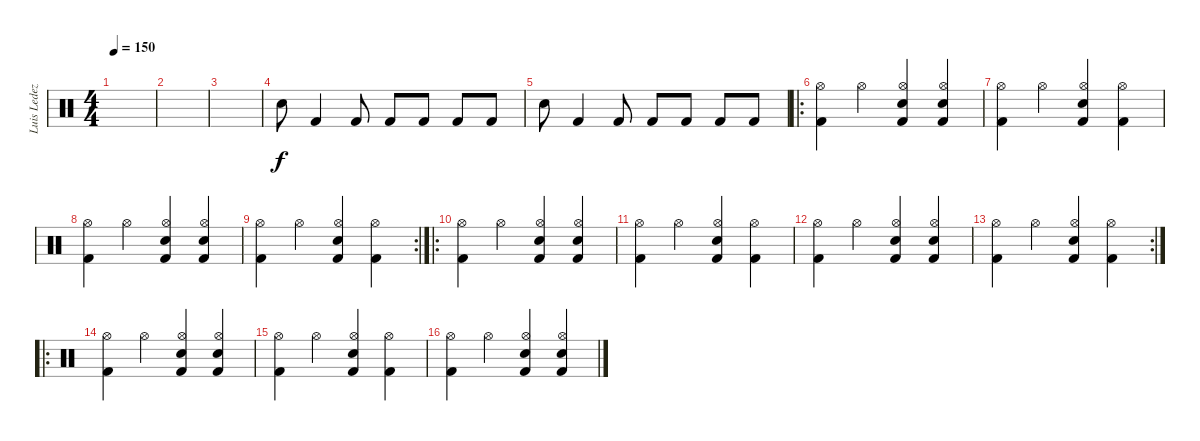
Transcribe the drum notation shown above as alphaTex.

\track ("Luis Ledezma" "Luis Ledez") {instrument percussion}
\staff {score}
\articulation defaults
\ts (4 4)
\tempo 150
\clef neutral
\ks c
|
|
|
"Snare (hit) 2".8 "Kick (hit) 2".4 "Kick (hit) 2".8 "Kick (hit) 2".8 "Kick (hit) 2".8 "Kick (hit) 2".8 "Kick (hit) 2".8 |
"Snare (hit) 2".8 "Kick (hit) 2".4 "Kick (hit) 2".8 "Kick (hit) 2".8 "Kick (hit) 2".8 "Kick (hit) 2".8 "Kick (hit) 2".8 |
\ro
("Hi-Hat (open)" "Kick (hit) 2").4 "Hi-Hat (open)".4 ("Hi-Hat (open)" "Electric Snare (hit)" "Kick (hit) 2").4 ("Hi-Hat (open)" "Electric Snare (hit)" "Kick (hit) 2").4 |
("Hi-Hat (open)" "Kick (hit) 2").4 "Hi-Hat (open)".4 ("Hi-Hat (open)" "Electric Snare (hit)" "Kick (hit) 2").4 ("Hi-Hat (open)" "Kick (hit) 2").4 |
("Hi-Hat (open)" "Kick (hit) 2").4 "Hi-Hat (open)".4 ("Hi-Hat (open)" "Electric Snare (hit)" "Kick (hit) 2").4 ("Hi-Hat (open)" "Electric Snare (hit)" "Kick (hit) 2").4 |
\rc 2
("Hi-Hat (open)" "Kick (hit) 2").4 "Hi-Hat (open)".4 ("Hi-Hat (open)" "Electric Snare (hit)" "Kick (hit) 2").4 ("Hi-Hat (open)" "Kick (hit) 2").4 |
\ro
("Hi-Hat (open)" "Kick (hit) 2").4 "Hi-Hat (open)".4 ("Hi-Hat (open)" "Electric Snare (hit)" "Kick (hit) 2").4 ("Hi-Hat (open)" "Electric Snare (hit)" "Kick (hit) 2").4 |
("Hi-Hat (open)" "Kick (hit) 2").4 "Hi-Hat (open)".4 ("Hi-Hat (open)" "Electric Snare (hit)" "Kick (hit) 2").4 ("Hi-Hat (open)" "Kick (hit) 2").4 |
("Hi-Hat (open)" "Kick (hit) 2").4 "Hi-Hat (open)".4 ("Hi-Hat (open)" "Electric Snare (hit)" "Kick (hit) 2").4 ("Hi-Hat (open)" "Electric Snare (hit)" "Kick (hit) 2").4 |
\rc 2
("Hi-Hat (open)" "Kick (hit) 2").4 "Hi-Hat (open)".4 ("Hi-Hat (open)" "Electric Snare (hit)" "Kick (hit) 2").4 ("Hi-Hat (open)" "Kick (hit) 2").4 |
\ro
("Hi-Hat (open)" "Kick (hit) 2").4 "Hi-Hat (open)".4 ("Hi-Hat (open)" "Electric Snare (hit)" "Kick (hit) 2").4 ("Hi-Hat (open)" "Electric Snare (hit)" "Kick (hit) 2").4 |
("Hi-Hat (open)" "Kick (hit) 2").4 "Hi-Hat (open)".4 ("Hi-Hat (open)" "Electric Snare (hit)" "Kick (hit) 2").4 ("Hi-Hat (open)" "Kick (hit) 2").4 |
("Hi-Hat (open)" "Kick (hit) 2").4 "Hi-Hat (open)".4 ("Hi-Hat (open)" "Electric Snare (hit)" "Kick (hit) 2").4 ("Hi-Hat (open)" "Electric Snare (hit)" "Kick (hit) 2").4
